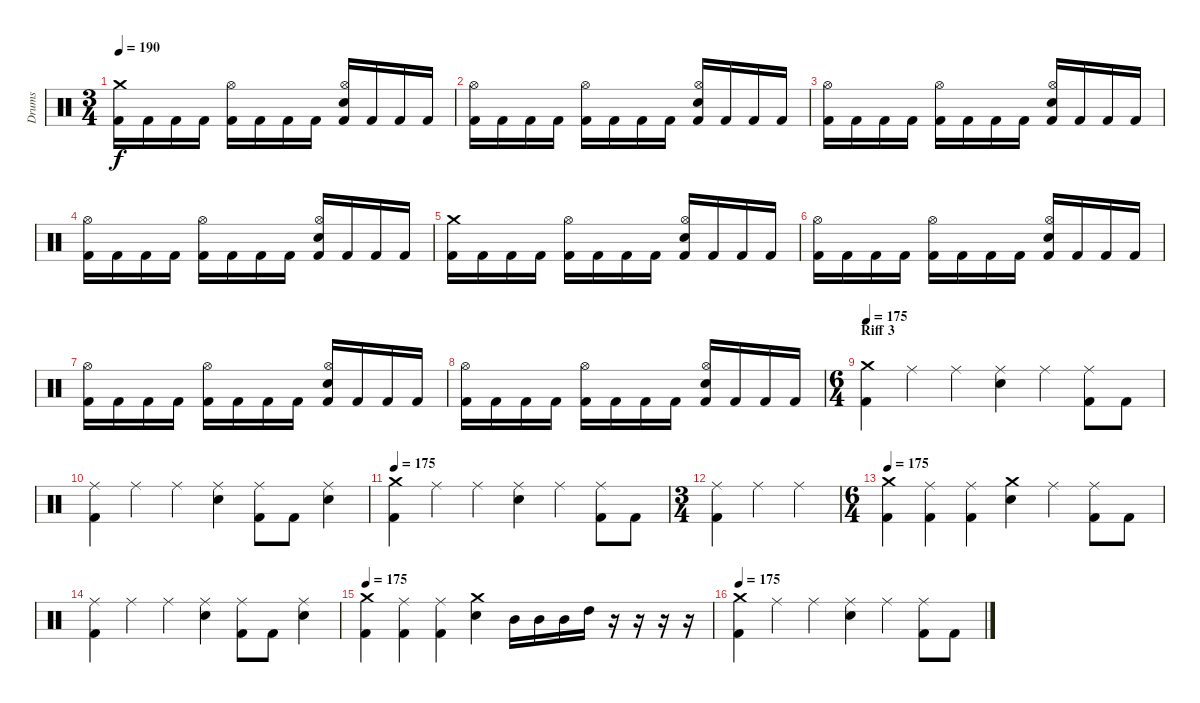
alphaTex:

\track ("Drums" "Drums") {instrument percussion}
\staff {score}
\articulation defaults
\ts (3 4)
\tempo 190
\clef neutral
\ks c
("Crash medium (hit)" "Kick (hit) 2").16{dy f} "Kick (hit) 2".16 "Kick (hit) 2".16 "Kick (hit) 2".16 ("Hi-Hat (open)" "Kick (hit) 2").16 "Kick (hit) 2".16 "Kick (hit) 2".16 "Kick (hit) 2".16 ("Hi-Hat (open)" "Electric Snare (hit)" "Kick (hit) 2").16 "Kick (hit) 2".16 "Kick (hit) 2".16 "Kick (hit) 2".16 |
("Hi-Hat (open)" "Kick (hit) 2").16 "Kick (hit) 2".16 "Kick (hit) 2".16 "Kick (hit) 2".16 ("Hi-Hat (open)" "Kick (hit) 2").16 "Kick (hit) 2".16 "Kick (hit) 2".16 "Kick (hit) 2".16 ("Hi-Hat (open)" "Electric Snare (hit)" "Kick (hit) 2").16 "Kick (hit) 2".16 "Kick (hit) 2".16 "Kick (hit) 2".16 |
("Hi-Hat (open)" "Kick (hit) 2").16 "Kick (hit) 2".16 "Kick (hit) 2".16 "Kick (hit) 2".16 ("Hi-Hat (open)" "Kick (hit) 2").16 "Kick (hit) 2".16 "Kick (hit) 2".16 "Kick (hit) 2".16 ("Hi-Hat (open)" "Electric Snare (hit)" "Kick (hit) 2").16 "Kick (hit) 2".16 "Kick (hit) 2".16 "Kick (hit) 2".16 |
("Hi-Hat (open)" "Kick (hit) 2").16 "Kick (hit) 2".16 "Kick (hit) 2".16 "Kick (hit) 2".16 ("Hi-Hat (open)" "Kick (hit) 2").16 "Kick (hit) 2".16 "Kick (hit) 2".16 "Kick (hit) 2".16 ("Hi-Hat (open)" "Electric Snare (hit)" "Kick (hit) 2").16 "Kick (hit) 2".16 "Kick (hit) 2".16 "Kick (hit) 2".16 |
("Crash medium (hit)" "Kick (hit) 2").16 "Kick (hit) 2".16 "Kick (hit) 2".16 "Kick (hit) 2".16 ("Hi-Hat (open)" "Kick (hit) 2").16 "Kick (hit) 2".16 "Kick (hit) 2".16 "Kick (hit) 2".16 ("Hi-Hat (open)" "Electric Snare (hit)" "Kick (hit) 2").16 "Kick (hit) 2".16 "Kick (hit) 2".16 "Kick (hit) 2".16 |
("Hi-Hat (open)" "Kick (hit) 2").16 "Kick (hit) 2".16 "Kick (hit) 2".16 "Kick (hit) 2".16 ("Hi-Hat (open)" "Kick (hit) 2").16 "Kick (hit) 2".16 "Kick (hit) 2".16 "Kick (hit) 2".16 ("Hi-Hat (open)" "Electric Snare (hit)" "Kick (hit) 2").16 "Kick (hit) 2".16 "Kick (hit) 2".16 "Kick (hit) 2".16 |
("Hi-Hat (open)" "Kick (hit) 2").16 "Kick (hit) 2".16 "Kick (hit) 2".16 "Kick (hit) 2".16 ("Hi-Hat (open)" "Kick (hit) 2").16 "Kick (hit) 2".16 "Kick (hit) 2".16 "Kick (hit) 2".16 ("Hi-Hat (open)" "Electric Snare (hit)" "Kick (hit) 2").16 "Kick (hit) 2".16 "Kick (hit) 2".16 "Kick (hit) 2".16 |
("Hi-Hat (open)" "Kick (hit) 2").16 "Kick (hit) 2".16 "Kick (hit) 2".16 "Kick (hit) 2".16 ("Hi-Hat (open)" "Kick (hit) 2").16 "Kick (hit) 2".16 "Kick (hit) 2".16 "Kick (hit) 2".16 ("Hi-Hat (open)" "Electric Snare (hit)" "Kick (hit) 2").16 "Kick (hit) 2".16 "Kick (hit) 2".16 "Kick (hit) 2".16 |
\ts (6 4)
\section ("" "Riff 3")
\tempo 175
("Crash medium (hit)" "Kick (hit) 2").4 "Ride (middle)".4 "Ride (middle)".4 ("Ride (middle)" "Electric Snare (hit)").4 "Ride (middle)".4 ("Ride (middle)" "Kick (hit) 2").8 "Kick (hit) 2".8 |
("Ride (middle)" "Kick (hit) 2").4 "Ride (middle)".4 "Ride (middle)".4 ("Ride (middle)" "Electric Snare (hit)").4 ("Ride (middle)" "Kick (hit) 2").8 "Kick (hit) 2".8 ("Ride (middle)" "Electric Snare (hit)").4 |
\tempo 175
("Crash medium (hit)" "Kick (hit) 2").4 "Ride (middle)".4 "Ride (middle)".4 ("Ride (middle)" "Electric Snare (hit)").4 "Ride (middle)".4 ("Ride (middle)" "Kick (hit) 2").8 "Kick (hit) 2".8 |
\ts (3 4)
("Ride (middle)" "Kick (hit) 2").4 "Ride (middle)".4 "Ride (middle)".4 |
\ts (6 4)
\tempo 175
("Crash medium (hit)" "Kick (hit) 2").4 ("Ride (middle)" "Kick (hit) 2").4 ("Ride (middle)" "Kick (hit) 2").4 ("Crash medium (hit)" "Electric Snare (hit)").4 "Ride (middle)".4 ("Ride (middle)" "Kick (hit) 2").8 "Kick (hit) 2".8 |
("Ride (middle)" "Kick (hit) 2").4 "Ride (middle)".4 "Ride (middle)".4 ("Ride (middle)" "Electric Snare (hit)").4 ("Ride (middle)" "Kick (hit) 2").8 "Kick (hit) 2".8 ("Ride (middle)" "Electric Snare (hit)").4 |
\tempo 175
("Crash medium (hit)" "Kick (hit) 2").4 ("Ride (middle)" "Kick (hit) 2").4 ("Ride (middle)" "Kick (hit) 2").4 ("Crash medium (hit)" "Electric Snare (hit)").4 "Mid Tom (hit)".16 "Mid Tom (hit)".16 "Mid Tom (hit)".16 "High Tom (hit)".16 r.16 r.16 r.16 r.16 |
\tempo 175
("Crash medium (hit)" "Kick (hit) 2").4 "Ride (middle)".4 "Ride (middle)".4 ("Ride (middle)" "Electric Snare (hit)").4 "Ride (middle)".4 ("Ride (middle)" "Kick (hit) 2").8 "Kick (hit) 2".8
